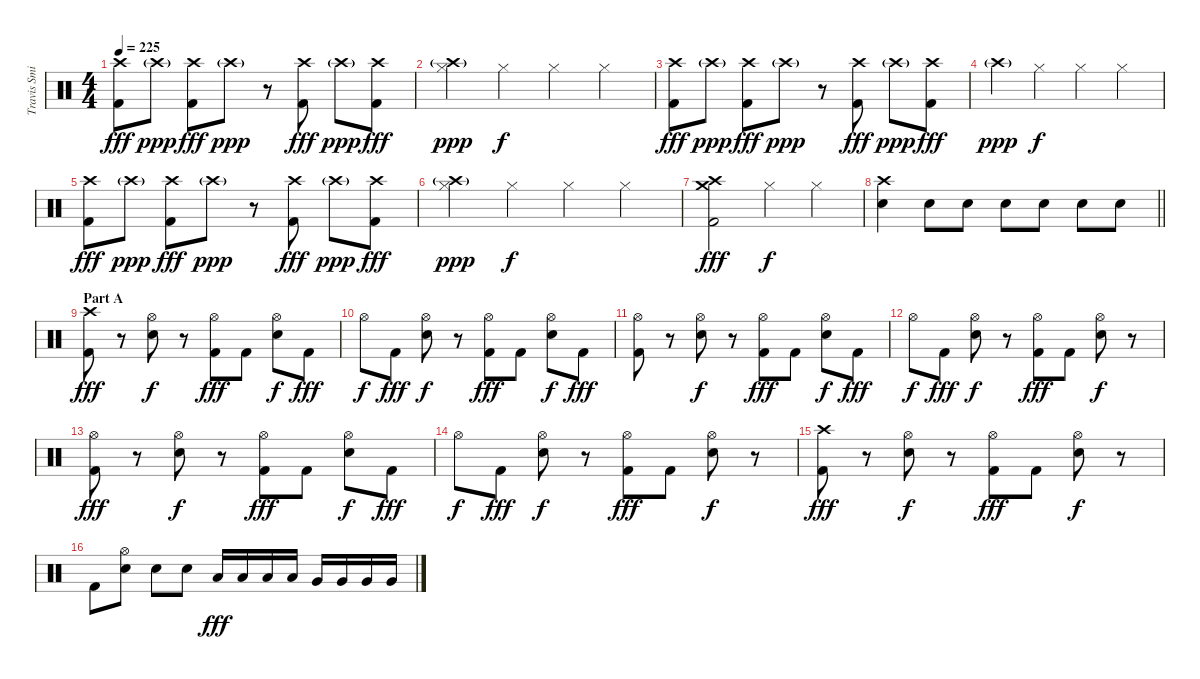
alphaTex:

\track ("Travis Smith" "Travis Smi") {instrument percussion}
\staff {score}
\articulation defaults
\ts (4 4)
\tempo 225
\clef neutral
\ks c
("Crash high (hit)" "Kick (hit) 2").8{dy fff} "Crash high (hit)"{g}.8{dy ppp} ("Crash high (hit)" "Kick (hit) 2").8{dy fff} "Crash high (hit)"{g}.8{dy ppp} r.8 ("Crash high (hit)" "Kick (hit) 2").8{dy fff} "Crash high (hit)"{g}.8{dy ppp} ("Crash high (hit)" "Kick (hit) 2").8{dy fff} |
("Crash high (hit)"{g} "Hi-Hat (closed)").4{dy ppp} "Hi-Hat (closed)".4{dy f} "Hi-Hat (closed)".4 "Hi-Hat (closed)".4 |
("Crash high (hit)" "Kick (hit) 2").8{dy fff} "Crash high (hit)"{g}.8{dy ppp} ("Crash high (hit)" "Kick (hit) 2").8{dy fff} "Crash high (hit)"{g}.8{dy ppp} r.8 ("Crash high (hit)" "Kick (hit) 2").8{dy fff} "Crash high (hit)"{g}.8{dy ppp} ("Crash high (hit)" "Kick (hit) 2").8{dy fff} |
"Crash high (hit)"{g}.4{dy ppp} "Hi-Hat (closed)".4{dy f} "Hi-Hat (closed)".4 "Hi-Hat (closed)".4 |
("Crash high (hit)" "Kick (hit) 2").8{dy fff} "Crash high (hit)"{g}.8{dy ppp} ("Crash high (hit)" "Kick (hit) 2").8{dy fff} "Crash high (hit)"{g}.8{dy ppp} r.8 ("Crash high (hit)" "Kick (hit) 2").8{dy fff} "Crash high (hit)"{g}.8{dy ppp} ("Crash high (hit)" "Kick (hit) 2").8{dy fff} |
("Crash high (hit)"{g} "Hi-Hat (closed)").4{dy ppp} "Hi-Hat (closed)".4{dy f} "Hi-Hat (closed)".4 "Hi-Hat (closed)".4 |
("Crash medium (hit)" "Crash high (hit)" "Kick (hit) 2").2{dy fff} "Hi-Hat (closed)".4{dy f} "Hi-Hat (closed)".4 |
\barLineRight lightlight
("Crash high (hit)" "Electric Snare (hit)").4 "Electric Snare (hit)".8 "Electric Snare (hit)".8 "Electric Snare (hit)".8 "Electric Snare (hit)".8 "Electric Snare (hit)".8 "Electric Snare (hit)".8 |
\section ("" "Part A")
("Crash high (hit)" "Kick (hit) 2").8{dy fff} r.8 ("Hi-Hat (open)" "Electric Snare (hit)").8{dy f} r.8 ("Hi-Hat (open)" "Kick (hit) 2").8{dy fff} "Kick (hit) 2".8 ("Hi-Hat (open)" "Electric Snare (hit)").8{dy f} "Kick (hit) 2".8{dy fff} |
"Hi-Hat (open)".8{dy f} "Kick (hit) 2".8{dy fff} ("Hi-Hat (open)" "Electric Snare (hit)").8{dy f} r.8 ("Hi-Hat (open)" "Kick (hit) 2").8{dy fff} "Kick (hit) 2".8 ("Hi-Hat (open)" "Electric Snare (hit)").8{dy f} "Kick (hit) 2".8{dy fff} |
("Hi-Hat (open)" "Kick (hit) 2").8 r.8 ("Hi-Hat (open)" "Electric Snare (hit)").8{dy f} r.8 ("Hi-Hat (open)" "Kick (hit) 2").8{dy fff} "Kick (hit) 2".8 ("Hi-Hat (open)" "Electric Snare (hit)").8{dy f} "Kick (hit) 2".8{dy fff} |
"Hi-Hat (open)".8{dy f} "Kick (hit) 2".8{dy fff} ("Hi-Hat (open)" "Electric Snare (hit)").8{dy f} r.8 ("Hi-Hat (open)" "Kick (hit) 2").8{dy fff} "Kick (hit) 2".8 ("Hi-Hat (open)" "Electric Snare (hit)").8{dy f} r.8 |
("Hi-Hat (open)" "Kick (hit) 2").8{dy fff} r.8 ("Hi-Hat (open)" "Electric Snare (hit)").8{dy f} r.8 ("Hi-Hat (open)" "Kick (hit) 2").8{dy fff} "Kick (hit) 2".8 ("Hi-Hat (open)" "Electric Snare (hit)").8{dy f} "Kick (hit) 2".8{dy fff} |
"Hi-Hat (open)".8{dy f} "Kick (hit) 2".8{dy fff} ("Hi-Hat (open)" "Electric Snare (hit)").8{dy f} r.8 ("Hi-Hat (open)" "Kick (hit) 2").8{dy fff} "Kick (hit) 2".8 ("Hi-Hat (open)" "Electric Snare (hit)").8{dy f} r.8 |
("Crash high (hit)" "Kick (hit) 2").8{dy fff} r.8 ("Hi-Hat (open)" "Electric Snare (hit)").8{dy f} r.8 ("Hi-Hat (open)" "Kick (hit) 2").8{dy fff} "Kick (hit) 2".8 ("Hi-Hat (open)" "Electric Snare (hit)").8{dy f} r.8 |
"Kick (hit) 2".8 ("Hi-Hat (open)" "Electric Snare (hit)").8 "Electric Snare (hit)".8 "Electric Snare (hit)".8 "Low Tom (hit)".16{dy fff} "Low Tom (hit)".16 "Low Tom (hit)".16 "Low Tom (hit)".16 "Very Low Tom (hit)".16 "Very Low Tom (hit)".16 "Very Low Tom (hit)".16 "Very Low Tom (hit)".16
